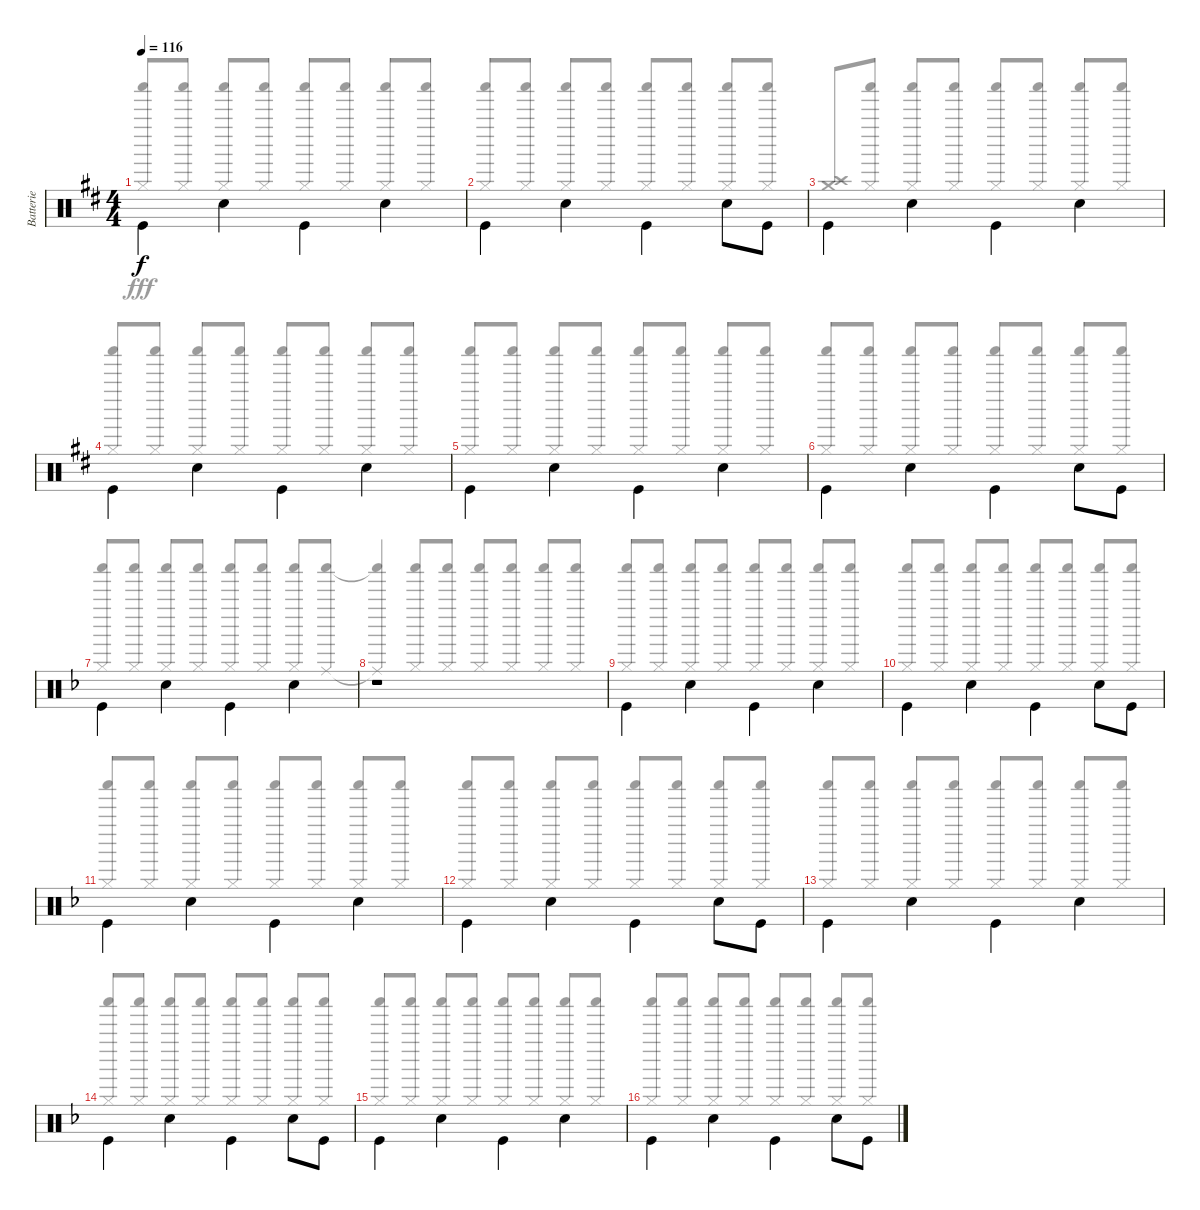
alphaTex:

\track ("Batterie" "Batterie") {instrument percussion}
\staff {score}
\articulation defaults
\voice
\ts (4 4)
\tempo 116
\clef neutral
\ks d "Kick (hit)".4{dy f beam Down} "Snare (hit) 2".4{beam Down} "Kick (hit)".4{beam Down} "Snare (hit) 2".4{beam Down}
|
"Kick (hit)".4{beam Down} "Snare (hit) 2".4{beam Down} "Kick (hit)".4{beam Down} "Snare (hit) 2".8{beam Down} "Kick (hit)".8{beam Down} |
"Kick (hit)".4{beam Down} "Snare (hit) 2".4{beam Down} "Kick (hit)".4{beam Down} "Snare (hit) 2".4{beam Down} |
"Kick (hit)".4{beam Down} "Snare (hit) 2".4{beam Down} "Kick (hit)".4{beam Down} "Snare (hit) 2".4{beam Down} |
"Kick (hit)".4{beam Down} "Snare (hit) 2".4{beam Down} "Kick (hit)".4{beam Down} "Snare (hit) 2".4{beam Down} |
"Kick (hit)".4{beam Down} "Snare (hit) 2".4{beam Down} "Kick (hit)".4{beam Down} "Snare (hit) 2".8{beam Down} "Kick (hit)".8{beam Down} |
\ks f "Kick (hit)".4{beam Down} "Snare (hit) 2".4{beam Down} "Kick (hit)".4{beam Down} "Snare (hit) 2".4{beam Down}
|
r.1 |
"Kick (hit)".4{beam Down} "Snare (hit) 2".4{beam Down} "Kick (hit)".4{beam Down} "Snare (hit) 2".4{beam Down} |
"Kick (hit)".4{beam Down} "Snare (hit) 2".4{beam Down} "Kick (hit)".4{beam Down} "Snare (hit) 2".8{beam Down} "Kick (hit)".8{beam Down} |
"Kick (hit)".4{beam Down} "Snare (hit) 2".4{beam Down} "Kick (hit)".4{beam Down} "Snare (hit) 2".4{beam Down} |
"Kick (hit)".4{beam Down} "Snare (hit) 2".4{beam Down} "Kick (hit)".4{beam Down} "Snare (hit) 2".8{beam Down} "Kick (hit)".8{beam Down} |
"Kick (hit)".4{beam Down} "Snare (hit) 2".4{beam Down} "Kick (hit)".4{beam Down} "Snare (hit) 2".4{beam Down} |
"Kick (hit)".4{beam Down} "Snare (hit) 2".4{beam Down} "Kick (hit)".4{beam Down} "Snare (hit) 2".8{beam Down} "Kick (hit)".8{beam Down} |
"Kick (hit)".4{beam Down} "Snare (hit) 2".4{beam Down} "Kick (hit)".4{beam Down} "Snare (hit) 2".4{beam Down} |
"Kick (hit)".4{beam Down} "Snare (hit) 2".4{beam Down} "Kick (hit)".4{beam Down} "Snare (hit) 2".8{beam Down} "Kick (hit)".8{beam Down}
\voice
\clef neutral
\ottava regular
\simile none
\ks d
("Shaker (hit)" "Hi-Hat (closed)").8{dy fff beam Up} ("Shaker (hit)" "Hi-Hat (closed)").8{beam Up} ("Shaker (hit)" "Hi-Hat (closed)").8{beam Up} ("Shaker (hit)" "Hi-Hat (closed)").8{beam Up} ("Shaker (hit)" "Hi-Hat (closed)").8{beam Up} ("Shaker (hit)" "Hi-Hat (closed)").8{beam Up} ("Shaker (hit)" "Hi-Hat (closed)").8{beam Up} ("Shaker (hit)" "Hi-Hat (closed)").8{beam Up} |
("Shaker (hit)" "Hi-Hat (closed)").8{beam Up} ("Shaker (hit)" "Hi-Hat (closed)").8{beam Up} ("Shaker (hit)" "Hi-Hat (closed)").8{beam Up} ("Shaker (hit)" "Hi-Hat (closed)").8{beam Up} ("Shaker (hit)" "Hi-Hat (closed)").8{beam Up} ("Shaker (hit)" "Hi-Hat (closed)").8{beam Up} ("Shaker (hit)" "Hi-Hat (closed)").8{beam Up} ("Shaker (hit)" "Hi-Hat (closed)").8{beam Up} |
("Crash medium (hit)" "Crash high (hit)").8{beam Up} ("Shaker (hit)" "Hi-Hat (closed)").8{beam Up} ("Shaker (hit)" "Hi-Hat (closed)").8{beam Up} ("Shaker (hit)" "Hi-Hat (closed)").8{beam Up} ("Shaker (hit)" "Hi-Hat (closed)").8{beam Up} ("Shaker (hit)" "Hi-Hat (closed)").8{beam Up} ("Shaker (hit)" "Hi-Hat (closed)").8{beam Up} ("Shaker (hit)" "Hi-Hat (closed)").8{beam Up} |
("Shaker (hit)" "Hi-Hat (closed)").8{beam Up} ("Shaker (hit)" "Hi-Hat (closed)").8{beam Up} ("Shaker (hit)" "Hi-Hat (closed)").8{beam Up} ("Shaker (hit)" "Hi-Hat (closed)").8{beam Up} ("Shaker (hit)" "Hi-Hat (closed)").8{beam Up} ("Shaker (hit)" "Hi-Hat (closed)").8{beam Up} ("Shaker (hit)" "Hi-Hat (closed)").8{beam Up} ("Shaker (hit)" "Hi-Hat (closed)").8{beam Up} |
("Shaker (hit)" "Hi-Hat (closed)").8{beam Up} ("Shaker (hit)" "Hi-Hat (closed)").8{beam Up} ("Shaker (hit)" "Hi-Hat (closed)").8{beam Up} ("Shaker (hit)" "Hi-Hat (closed)").8{beam Up} ("Shaker (hit)" "Hi-Hat (closed)").8{beam Up} ("Shaker (hit)" "Hi-Hat (closed)").8{beam Up} ("Shaker (hit)" "Hi-Hat (closed)").8{beam Up} ("Shaker (hit)" "Hi-Hat (closed)").8{beam Up} |
("Shaker (hit)" "Hi-Hat (closed)").8{beam Up} ("Shaker (hit)" "Hi-Hat (closed)").8{beam Up} ("Shaker (hit)" "Hi-Hat (closed)").8{beam Up} ("Shaker (hit)" "Hi-Hat (closed)").8{beam Up} ("Shaker (hit)" "Hi-Hat (closed)").8{beam Up} ("Shaker (hit)" "Hi-Hat (closed)").8{beam Up} ("Shaker (hit)" "Hi-Hat (closed)").8{beam Up} ("Shaker (hit)" "Hi-Hat (closed)").8{beam Up} |
\ks f
("Shaker (hit)" "Hi-Hat (closed)").8{beam Up} ("Shaker (hit)" "Hi-Hat (closed)").8{beam Up} ("Shaker (hit)" "Hi-Hat (closed)").8{beam Up} ("Shaker (hit)" "Hi-Hat (closed)").8{beam Up} ("Shaker (hit)" "Hi-Hat (closed)").8{beam Up} ("Shaker (hit)" "Hi-Hat (closed)").8{beam Up} ("Shaker (hit)" "Hi-Hat (closed)").8{beam Up} ("Shaker (hit)" "Ride (middle)").8{beam Up} |
("Shaker (hit)"{t} "Ride (middle)"{t}).4{beam Up} ("Shaker (hit)" "Hi-Hat (closed)").8{beam Up} ("Shaker (hit)" "Hi-Hat (closed)").8{beam Up} ("Shaker (hit)" "Hi-Hat (closed)").8{beam Up} ("Shaker (hit)" "Hi-Hat (closed)").8{beam Up} ("Shaker (hit)" "Hi-Hat (closed)").8{beam Up} ("Shaker (hit)" "Hi-Hat (closed)").8{beam Up} |
("Shaker (hit)" "Hi-Hat (closed)").8{beam Up} ("Shaker (hit)" "Hi-Hat (closed)").8{beam Up} ("Shaker (hit)" "Hi-Hat (closed)").8{beam Up} ("Shaker (hit)" "Hi-Hat (closed)").8{beam Up} ("Shaker (hit)" "Hi-Hat (closed)").8{beam Up} ("Shaker (hit)" "Hi-Hat (closed)").8{beam Up} ("Shaker (hit)" "Hi-Hat (closed)").8{beam Up} ("Shaker (hit)" "Hi-Hat (closed)").8{beam Up} |
("Shaker (hit)" "Hi-Hat (closed)").8{beam Up} ("Shaker (hit)" "Hi-Hat (closed)").8{beam Up} ("Shaker (hit)" "Hi-Hat (closed)").8{beam Up} ("Shaker (hit)" "Hi-Hat (closed)").8{beam Up} ("Shaker (hit)" "Hi-Hat (closed)").8{beam Up} ("Shaker (hit)" "Hi-Hat (closed)").8{beam Up} ("Shaker (hit)" "Hi-Hat (closed)").8{beam Up} ("Shaker (hit)" "Hi-Hat (closed)").8{beam Up} |
("Shaker (hit)" "Hi-Hat (closed)").8{beam Up} ("Shaker (hit)" "Hi-Hat (closed)").8{beam Up} ("Shaker (hit)" "Hi-Hat (closed)").8{beam Up} ("Shaker (hit)" "Hi-Hat (closed)").8{beam Up} ("Shaker (hit)" "Hi-Hat (closed)").8{beam Up} ("Shaker (hit)" "Hi-Hat (closed)").8{beam Up} ("Shaker (hit)" "Hi-Hat (closed)").8{beam Up} ("Shaker (hit)" "Hi-Hat (closed)").8{beam Up} |
("Shaker (hit)" "Hi-Hat (closed)").8{beam Up} ("Shaker (hit)" "Hi-Hat (closed)").8{beam Up} ("Shaker (hit)" "Hi-Hat (closed)").8{beam Up} ("Shaker (hit)" "Hi-Hat (closed)").8{beam Up} ("Shaker (hit)" "Hi-Hat (closed)").8{beam Up} ("Shaker (hit)" "Hi-Hat (closed)").8{beam Up} ("Shaker (hit)" "Hi-Hat (closed)").8{beam Up} ("Shaker (hit)" "Hi-Hat (closed)").8{beam Up} |
("Shaker (hit)" "Hi-Hat (closed)").8{beam Up} ("Shaker (hit)" "Hi-Hat (closed)").8{beam Up} ("Shaker (hit)" "Hi-Hat (closed)").8{beam Up} ("Shaker (hit)" "Hi-Hat (closed)").8{beam Up} ("Shaker (hit)" "Hi-Hat (closed)").8{beam Up} ("Shaker (hit)" "Hi-Hat (closed)").8{beam Up} ("Shaker (hit)" "Hi-Hat (closed)").8{beam Up} ("Shaker (hit)" "Hi-Hat (closed)").8{beam Up} |
("Shaker (hit)" "Hi-Hat (closed)").8{beam Up} ("Shaker (hit)" "Hi-Hat (closed)").8{beam Up} ("Shaker (hit)" "Hi-Hat (closed)").8{beam Up} ("Shaker (hit)" "Hi-Hat (closed)").8{beam Up} ("Shaker (hit)" "Hi-Hat (closed)").8{beam Up} ("Shaker (hit)" "Hi-Hat (closed)").8{beam Up} ("Shaker (hit)" "Hi-Hat (closed)").8{beam Up} ("Shaker (hit)" "Hi-Hat (closed)").8{beam Up} |
("Shaker (hit)" "Hi-Hat (closed)").8{beam Up} ("Shaker (hit)" "Hi-Hat (closed)").8{beam Up} ("Shaker (hit)" "Hi-Hat (closed)").8{beam Up} ("Shaker (hit)" "Hi-Hat (closed)").8{beam Up} ("Shaker (hit)" "Hi-Hat (closed)").8{beam Up} ("Shaker (hit)" "Hi-Hat (closed)").8{beam Up} ("Shaker (hit)" "Hi-Hat (closed)").8{beam Up} ("Shaker (hit)" "Hi-Hat (closed)").8{beam Up} |
("Shaker (hit)" "Hi-Hat (closed)").8{beam Up} ("Shaker (hit)" "Hi-Hat (closed)").8{beam Up} ("Shaker (hit)" "Hi-Hat (closed)").8{beam Up} ("Shaker (hit)" "Hi-Hat (closed)").8{beam Up} ("Shaker (hit)" "Hi-Hat (closed)").8{beam Up} ("Shaker (hit)" "Hi-Hat (closed)").8{beam Up} ("Shaker (hit)" "Hi-Hat (closed)").8{beam Up} ("Shaker (hit)" "Hi-Hat (closed)").8{beam Up}
